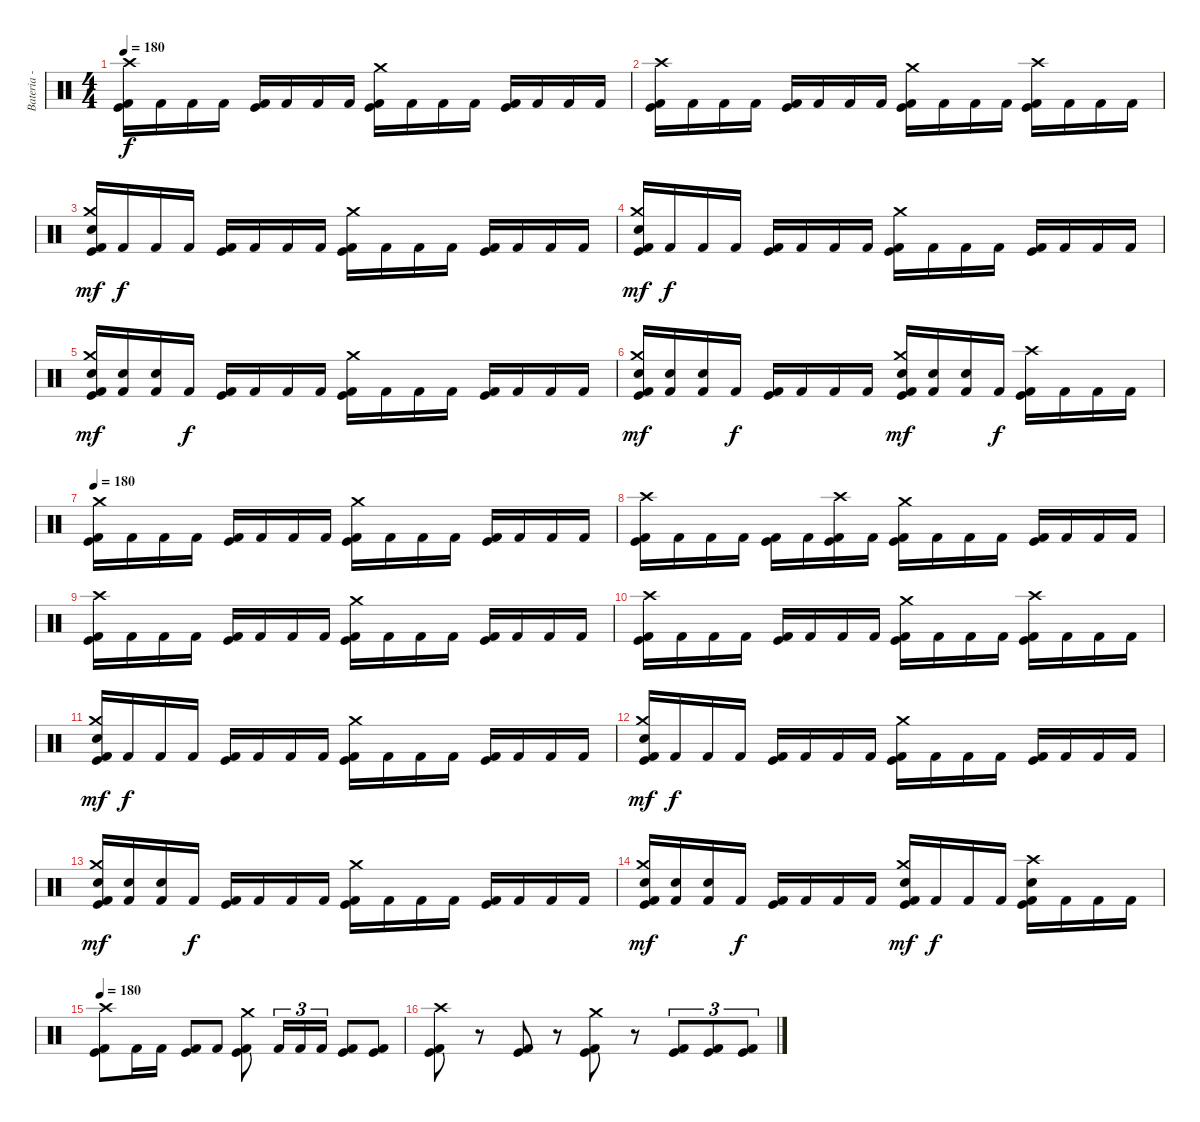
\track ("Bateria - Drums" "Bateria - ") {instrument percussion}
\staff {score}
\articulation defaults
\ts (4 4)
\tempo 180
\clef neutral
\ks c
("Crash high (hit)" "Kick (hit)" "Kick (hit) 2").16{dy f} "Kick (hit) 2".16 "Kick (hit) 2".16 "Kick (hit) 2".16 ("Kick (hit)" "Kick (hit) 2").16 "Kick (hit) 2".16 "Kick (hit) 2".16 "Kick (hit) 2".16 ("Crash medium (hit)" "Kick (hit)" "Kick (hit) 2").16 "Kick (hit) 2".16 "Kick (hit) 2".16 "Kick (hit) 2".16 ("Kick (hit)" "Kick (hit) 2").16 "Kick (hit) 2".16 "Kick (hit) 2".16 "Kick (hit) 2".16 |
("Crash high (hit)" "Kick (hit)" "Kick (hit) 2").16 "Kick (hit) 2".16 "Kick (hit) 2".16 "Kick (hit) 2".16 ("Kick (hit)" "Kick (hit) 2").16 "Kick (hit) 2".16 "Kick (hit) 2".16 "Kick (hit) 2".16 ("Crash medium (hit)" "Kick (hit)" "Kick (hit) 2").16 "Kick (hit) 2".16 "Kick (hit) 2".16 "Kick (hit) 2".16 ("Crash high (hit)" "Kick (hit)" "Kick (hit) 2").16 "Kick (hit) 2".16 "Kick (hit) 2".16 "Kick (hit) 2".16 |
("Crash medium (hit)" "Snare (hit) 2" "Kick (hit)" "Kick (hit) 2").16{dy mf} "Kick (hit) 2".16{dy f} "Kick (hit) 2".16 "Kick (hit) 2".16 ("Kick (hit)" "Kick (hit) 2").16 "Kick (hit) 2".16 "Kick (hit) 2".16 "Kick (hit) 2".16 ("Crash medium (hit)" "Kick (hit)" "Kick (hit) 2").16 "Kick (hit) 2".16 "Kick (hit) 2".16 "Kick (hit) 2".16 ("Kick (hit)" "Kick (hit) 2").16 "Kick (hit) 2".16 "Kick (hit) 2".16 "Kick (hit) 2".16 |
("Crash medium (hit)" "Snare (hit) 2" "Kick (hit)" "Kick (hit) 2").16{dy mf} "Kick (hit) 2".16{dy f} "Kick (hit) 2".16 "Kick (hit) 2".16 ("Kick (hit)" "Kick (hit) 2").16 "Kick (hit) 2".16 "Kick (hit) 2".16 "Kick (hit) 2".16 ("Crash medium (hit)" "Kick (hit)" "Kick (hit) 2").16 "Kick (hit) 2".16 "Kick (hit) 2".16 "Kick (hit) 2".16 ("Kick (hit)" "Kick (hit) 2").16 "Kick (hit) 2".16 "Kick (hit) 2".16 "Kick (hit) 2".16 |
("Crash medium (hit)" "Snare (hit) 2" "Kick (hit)" "Kick (hit) 2").16{dy mf} ("Snare (hit) 2" "Kick (hit) 2").16 ("Snare (hit) 2" "Kick (hit) 2").16 "Kick (hit) 2".16{dy f} ("Kick (hit)" "Kick (hit) 2").16 "Kick (hit) 2".16 "Kick (hit) 2".16 "Kick (hit) 2".16 ("Crash medium (hit)" "Kick (hit)" "Kick (hit) 2").16 "Kick (hit) 2".16 "Kick (hit) 2".16 "Kick (hit) 2".16 ("Kick (hit)" "Kick (hit) 2").16 "Kick (hit) 2".16 "Kick (hit) 2".16 "Kick (hit) 2".16 |
("Crash medium (hit)" "Snare (hit) 2" "Kick (hit)" "Kick (hit) 2").16{dy mf} ("Snare (hit) 2" "Kick (hit) 2").16 ("Snare (hit) 2" "Kick (hit) 2").16 "Kick (hit) 2".16{dy f} ("Kick (hit)" "Kick (hit) 2").16 "Kick (hit) 2".16 "Kick (hit) 2".16 "Kick (hit) 2".16 ("Crash medium (hit)" "Snare (hit) 2" "Kick (hit)" "Kick (hit) 2").16{dy mf} ("Snare (hit) 2" "Kick (hit) 2").16 ("Snare (hit) 2" "Kick (hit) 2").16 "Kick (hit) 2".16{dy f} ("Crash high (hit)" "Kick (hit)" "Kick (hit) 2").16 "Kick (hit) 2".16 "Kick (hit) 2".16 "Kick (hit) 2".16 |
\tempo 180
("Crash medium (hit)" "Kick (hit)" "Kick (hit) 2").16 "Kick (hit) 2".16 "Kick (hit) 2".16 "Kick (hit) 2".16 ("Kick (hit)" "Kick (hit) 2").16 "Kick (hit) 2".16 "Kick (hit) 2".16 "Kick (hit) 2".16 ("Crash medium (hit)" "Kick (hit)" "Kick (hit) 2").16 "Kick (hit) 2".16 "Kick (hit) 2".16 "Kick (hit) 2".16 ("Kick (hit)" "Kick (hit) 2").16 "Kick (hit) 2".16 "Kick (hit) 2".16 "Kick (hit) 2".16 |
("Crash high (hit)" "Kick (hit)" "Kick (hit) 2").16 "Kick (hit) 2".16 "Kick (hit) 2".16 "Kick (hit) 2".16 ("Kick (hit)" "Kick (hit) 2").16 "Kick (hit) 2".16 ("Crash high (hit)" "Kick (hit)" "Kick (hit) 2").16 "Kick (hit) 2".16 ("Crash medium (hit)" "Kick (hit)" "Kick (hit) 2").16 "Kick (hit) 2".16 "Kick (hit) 2".16 "Kick (hit) 2".16 ("Kick (hit)" "Kick (hit) 2").16 "Kick (hit) 2".16 "Kick (hit) 2".16 "Kick (hit) 2".16 |
("Crash high (hit)" "Kick (hit)" "Kick (hit) 2").16 "Kick (hit) 2".16 "Kick (hit) 2".16 "Kick (hit) 2".16 ("Kick (hit)" "Kick (hit) 2").16 "Kick (hit) 2".16 "Kick (hit) 2".16 "Kick (hit) 2".16 ("Crash medium (hit)" "Kick (hit)" "Kick (hit) 2").16 "Kick (hit) 2".16 "Kick (hit) 2".16 "Kick (hit) 2".16 ("Kick (hit)" "Kick (hit) 2").16 "Kick (hit) 2".16 "Kick (hit) 2".16 "Kick (hit) 2".16 |
("Crash high (hit)" "Kick (hit)" "Kick (hit) 2").16 "Kick (hit) 2".16 "Kick (hit) 2".16 "Kick (hit) 2".16 ("Kick (hit)" "Kick (hit) 2").16 "Kick (hit) 2".16 "Kick (hit) 2".16 "Kick (hit) 2".16 ("Crash medium (hit)" "Kick (hit)" "Kick (hit) 2").16 "Kick (hit) 2".16 "Kick (hit) 2".16 "Kick (hit) 2".16 ("Crash high (hit)" "Kick (hit)" "Kick (hit) 2").16 "Kick (hit) 2".16 "Kick (hit) 2".16 "Kick (hit) 2".16 |
("Crash medium (hit)" "Snare (hit) 2" "Kick (hit)" "Kick (hit) 2").16{dy mf} "Kick (hit) 2".16{dy f} "Kick (hit) 2".16 "Kick (hit) 2".16 ("Kick (hit)" "Kick (hit) 2").16 "Kick (hit) 2".16 "Kick (hit) 2".16 "Kick (hit) 2".16 ("Crash medium (hit)" "Kick (hit)" "Kick (hit) 2").16 "Kick (hit) 2".16 "Kick (hit) 2".16 "Kick (hit) 2".16 ("Kick (hit)" "Kick (hit) 2").16 "Kick (hit) 2".16 "Kick (hit) 2".16 "Kick (hit) 2".16 |
("Crash medium (hit)" "Snare (hit) 2" "Kick (hit)" "Kick (hit) 2").16{dy mf} "Kick (hit) 2".16{dy f} "Kick (hit) 2".16 "Kick (hit) 2".16 ("Kick (hit)" "Kick (hit) 2").16 "Kick (hit) 2".16 "Kick (hit) 2".16 "Kick (hit) 2".16 ("Crash medium (hit)" "Kick (hit)" "Kick (hit) 2").16 "Kick (hit) 2".16 "Kick (hit) 2".16 "Kick (hit) 2".16 ("Kick (hit)" "Kick (hit) 2").16 "Kick (hit) 2".16 "Kick (hit) 2".16 "Kick (hit) 2".16 |
("Crash medium (hit)" "Snare (hit) 2" "Kick (hit)" "Kick (hit) 2").16{dy mf} ("Snare (hit) 2" "Kick (hit) 2").16 ("Snare (hit) 2" "Kick (hit) 2").16 "Kick (hit) 2".16{dy f} ("Kick (hit)" "Kick (hit) 2").16 "Kick (hit) 2".16 "Kick (hit) 2".16 "Kick (hit) 2".16 ("Crash medium (hit)" "Kick (hit)" "Kick (hit) 2").16 "Kick (hit) 2".16 "Kick (hit) 2".16 "Kick (hit) 2".16 ("Kick (hit)" "Kick (hit) 2").16 "Kick (hit) 2".16 "Kick (hit) 2".16 "Kick (hit) 2".16 |
("Crash medium (hit)" "Snare (hit) 2" "Kick (hit)" "Kick (hit) 2").16{dy mf} ("Snare (hit) 2" "Kick (hit) 2").16 ("Snare (hit) 2" "Kick (hit) 2").16 "Kick (hit) 2".16{dy f} ("Kick (hit)" "Kick (hit) 2").16 "Kick (hit) 2".16 "Kick (hit) 2".16 "Kick (hit) 2".16 ("Crash medium (hit)" "Snare (hit) 2" "Kick (hit)" "Kick (hit) 2").16{dy mf} "Kick (hit) 2".16{dy f} "Kick (hit) 2".16 "Kick (hit) 2".16 ("Crash high (hit)" "Snare (hit) 2" "Kick (hit)" "Kick (hit) 2").16 "Kick (hit) 2".16 "Kick (hit) 2".16 "Kick (hit) 2".16 |
\tempo 180
("Crash high (hit)" "Kick (hit)" "Kick (hit) 2").8 "Kick (hit) 2".16 "Kick (hit) 2".16 ("Kick (hit)" "Kick (hit) 2").8 "Kick (hit) 2".8 ("Crash medium (hit)" "Kick (hit)" "Kick (hit) 2").8 "Kick (hit) 2".16{tu (3 2)} "Kick (hit) 2".16{tu (3 2)} "Kick (hit) 2".16{tu (3 2)} ("Kick (hit)" "Kick (hit) 2").8 ("Kick (hit)" "Kick (hit) 2").8 |
("Crash high (hit)" "Kick (hit)" "Kick (hit) 2").8 r.8 ("Kick (hit)" "Kick (hit) 2").8 r.8 ("Crash medium (hit)" "Kick (hit)" "Kick (hit) 2").8 r.8 ("Kick (hit)" "Kick (hit) 2").8{tu (3 2)} ("Kick (hit)" "Kick (hit) 2").8{tu (3 2)} ("Kick (hit)" "Kick (hit) 2").8{tu (3 2)}
